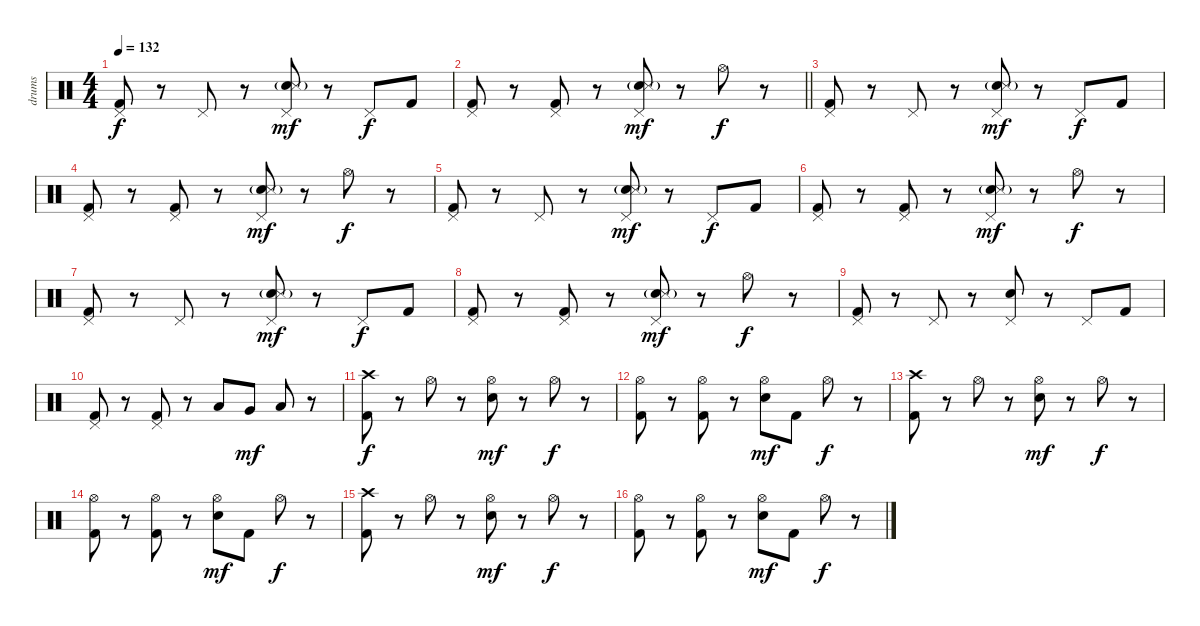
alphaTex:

\track ("drums" "drums") {instrument percussion}
\staff {score}
\articulation defaults
\ts (4 4)
\tempo 132
\clef neutral
\ks c
("Pedal Hi-Hat (hit)" "Kick (hit) 2").8{dy f} r.8 "Pedal Hi-Hat (hit)".8 r.8 ("Pedal Hi-Hat (hit)" "Electric Snare (hit)"{g} "Snare (side stick) 3").8{dy mf} r.8 "Pedal Hi-Hat (hit)".8{dy f} "Kick (hit) 2".8 |
\barLineRight lightlight
("Pedal Hi-Hat (hit)" "Kick (hit) 2").8 r.8 ("Pedal Hi-Hat (hit)" "Kick (hit) 2").8 r.8 ("Pedal Hi-Hat (hit)" "Electric Snare (hit)"{g} "Snare (side stick) 3").8{dy mf} r.8 "Hi-Hat (open)".8{dy f} r.8 |
("Pedal Hi-Hat (hit)" "Kick (hit) 2").8 r.8 "Pedal Hi-Hat (hit)".8 r.8 ("Pedal Hi-Hat (hit)" "Electric Snare (hit)"{g} "Snare (side stick) 3").8{dy mf} r.8 "Pedal Hi-Hat (hit)".8{dy f} "Kick (hit) 2".8 |
("Pedal Hi-Hat (hit)" "Kick (hit) 2").8 r.8 ("Pedal Hi-Hat (hit)" "Kick (hit) 2").8 r.8 ("Pedal Hi-Hat (hit)" "Electric Snare (hit)"{g} "Snare (side stick) 3").8{dy mf} r.8 "Hi-Hat (open)".8{dy f} r.8 |
("Pedal Hi-Hat (hit)" "Kick (hit) 2").8 r.8 "Pedal Hi-Hat (hit)".8 r.8 ("Pedal Hi-Hat (hit)" "Electric Snare (hit)"{g} "Snare (side stick) 3").8{dy mf} r.8 "Pedal Hi-Hat (hit)".8{dy f} "Kick (hit) 2".8 |
("Pedal Hi-Hat (hit)" "Kick (hit) 2").8 r.8 ("Pedal Hi-Hat (hit)" "Kick (hit) 2").8 r.8 ("Pedal Hi-Hat (hit)" "Electric Snare (hit)"{g} "Snare (side stick) 3").8{dy mf} r.8 "Hi-Hat (open)".8{dy f} r.8 |
("Pedal Hi-Hat (hit)" "Kick (hit) 2").8 r.8 "Pedal Hi-Hat (hit)".8 r.8 ("Pedal Hi-Hat (hit)" "Electric Snare (hit)"{g} "Snare (side stick) 3").8{dy mf} r.8 "Pedal Hi-Hat (hit)".8{dy f} "Kick (hit) 2".8 |
("Pedal Hi-Hat (hit)" "Kick (hit) 2").8 r.8 ("Pedal Hi-Hat (hit)" "Kick (hit) 2").8 r.8 ("Pedal Hi-Hat (hit)" "Electric Snare (hit)"{g} "Snare (side stick) 3").8{dy mf} r.8 "Hi-Hat (open)".8{dy f} r.8 |
("Pedal Hi-Hat (hit)" "Kick (hit) 2").8 r.8 "Pedal Hi-Hat (hit)".8 r.8 ("Pedal Hi-Hat (hit)" "Electric Snare (hit)").8 r.8 "Pedal Hi-Hat (hit)".8 "Kick (hit) 2".8 |
("Pedal Hi-Hat (hit)" "Kick (hit) 2").8 r.8 ("Pedal Hi-Hat (hit)" "Kick (hit) 2").8 r.8 "Low Floor Tom (hit)".8 "Very Low Tom (hit)".8{dy mf} "Low Tom (hit)".8 r.8 |
("Crash high (hit)" "Kick (hit) 2").8{dy f} r.8 "Hi-Hat (open)".8 r.8 ("Hi-Hat (open)" "Snare (hit) 2").8{dy mf} r.8 "Hi-Hat (open)".8{dy f} r.8 |
("Hi-Hat (open)" "Kick (hit) 2").8 r.8 ("Hi-Hat (open)" "Kick (hit) 2").8 r.8 ("Hi-Hat (open)" "Snare (hit) 2").8{dy mf} "Kick (hit) 2".8 "Hi-Hat (open)".8{dy f} r.8 |
("Crash high (hit)" "Kick (hit) 2").8 r.8 "Hi-Hat (open)".8 r.8 ("Hi-Hat (open)" "Snare (hit) 2").8{dy mf} r.8 "Hi-Hat (open)".8{dy f} r.8 |
("Hi-Hat (open)" "Kick (hit) 2").8 r.8 ("Hi-Hat (open)" "Kick (hit) 2").8 r.8 ("Hi-Hat (open)" "Snare (hit) 2").8{dy mf} "Kick (hit) 2".8 "Hi-Hat (open)".8{dy f} r.8 |
("Crash high (hit)" "Kick (hit) 2").8 r.8 "Hi-Hat (open)".8 r.8 ("Hi-Hat (open)" "Snare (hit) 2").8{dy mf} r.8 "Hi-Hat (open)".8{dy f} r.8 |
("Hi-Hat (open)" "Kick (hit) 2").8 r.8 ("Hi-Hat (open)" "Kick (hit) 2").8 r.8 ("Hi-Hat (open)" "Snare (hit) 2").8{dy mf} "Kick (hit) 2".8 "Hi-Hat (open)".8{dy f} r.8
